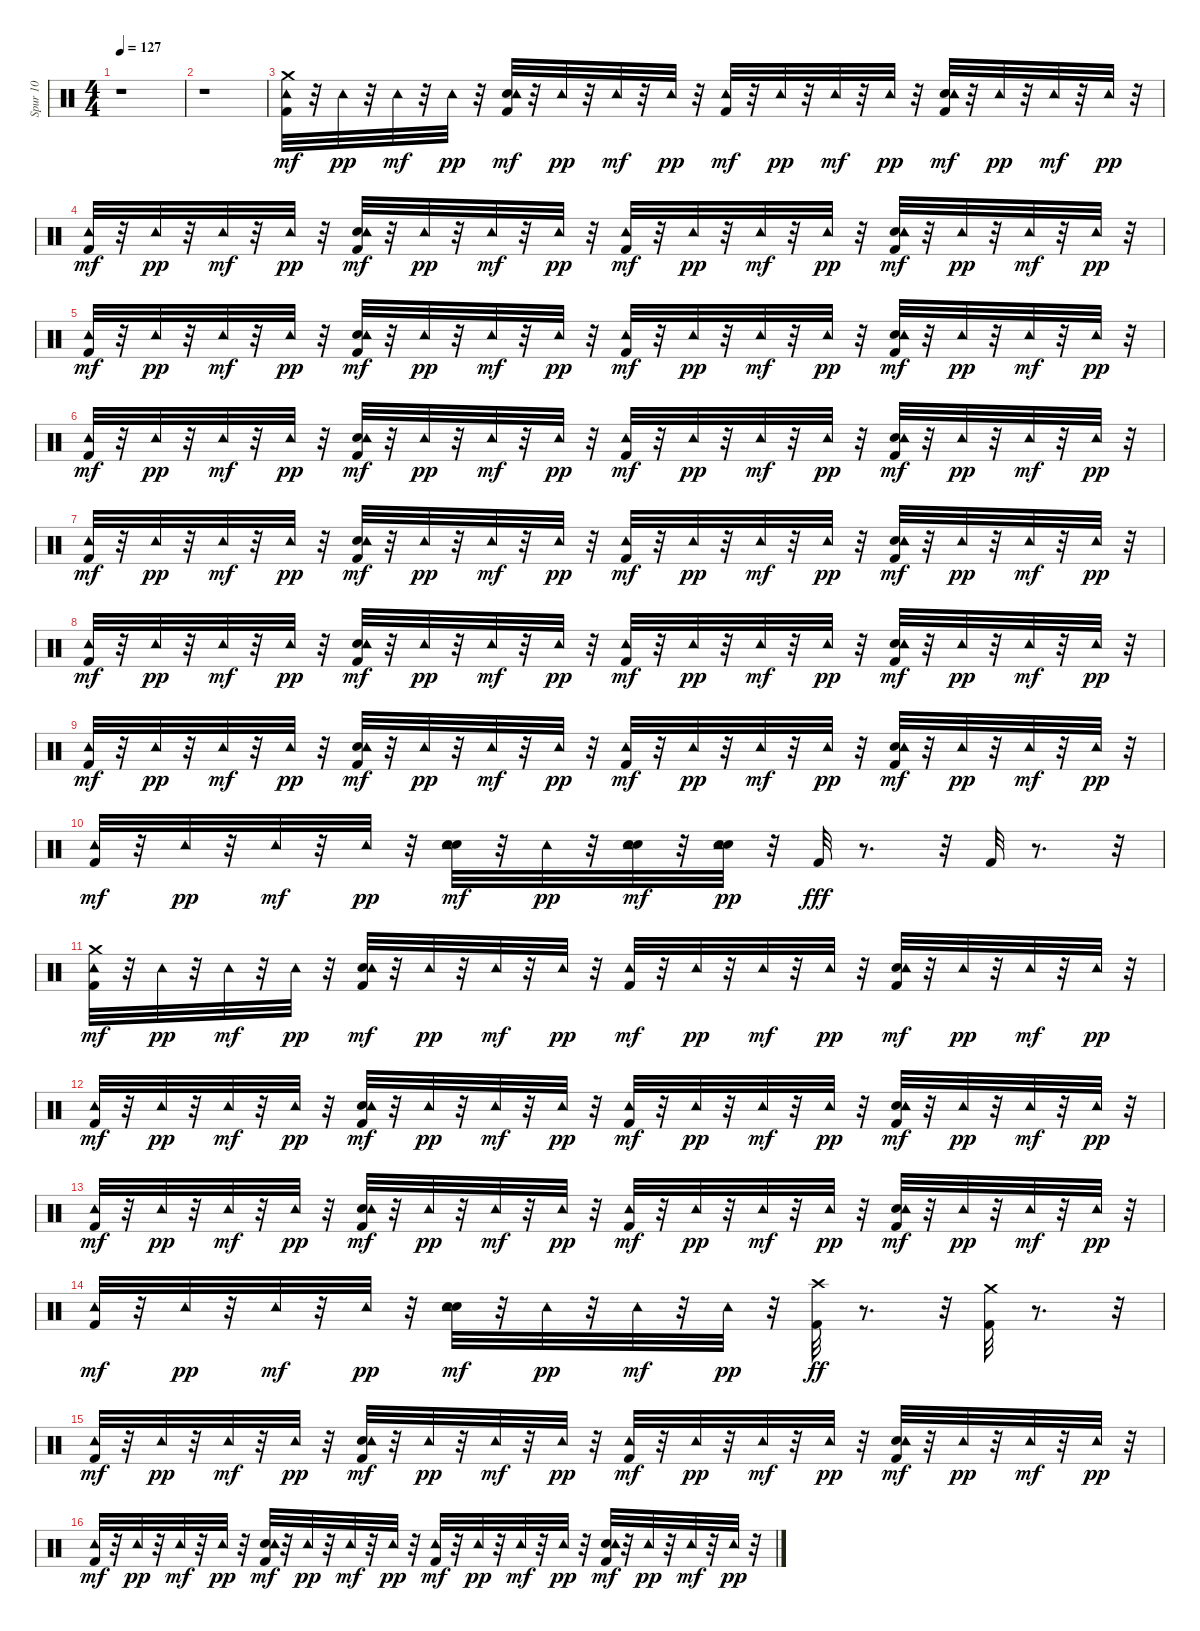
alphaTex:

\track ("Spur 10" "Spur 10") {instrument percussion}
\staff {score}
\articulation defaults
\ts (4 4)
\tempo 127
\clef neutral
\ks c
r.1{dy mf} |
r.1 |
("Kick (hit) 2" "Tambourine (hit)" "Crash medium (hit)").32 r.32 "Tambourine (hit)".32{dy pp} r.32 "Tambourine (hit)".32{dy mf} r.32 "Tambourine (hit)".32{dy pp} r.32 ("Kick (hit) 2" "Snare (hit) 2" "Tambourine (hit)").32{dy mf} r.32 "Tambourine (hit)".32{dy pp} r.32 "Tambourine (hit)".32{dy mf} r.32 "Tambourine (hit)".32{dy pp} r.32 ("Kick (hit) 2" "Tambourine (hit)").32{dy mf} r.32 "Tambourine (hit)".32{dy pp} r.32 "Tambourine (hit)".32{dy mf} r.32 "Tambourine (hit)".32{dy pp} r.32 ("Kick (hit) 2" "Snare (hit) 2" "Tambourine (hit)").32{dy mf} r.32 "Tambourine (hit)".32{dy pp} r.32 "Tambourine (hit)".32{dy mf} r.32 "Tambourine (hit)".32{dy pp} r.32 |
("Kick (hit) 2" "Tambourine (hit)").32{dy mf} r.32 "Tambourine (hit)".32{dy pp} r.32 "Tambourine (hit)".32{dy mf} r.32 "Tambourine (hit)".32{dy pp} r.32 ("Kick (hit) 2" "Snare (hit) 2" "Tambourine (hit)").32{dy mf} r.32 "Tambourine (hit)".32{dy pp} r.32 "Tambourine (hit)".32{dy mf} r.32 "Tambourine (hit)".32{dy pp} r.32 ("Kick (hit) 2" "Tambourine (hit)").32{dy mf} r.32 "Tambourine (hit)".32{dy pp} r.32 "Tambourine (hit)".32{dy mf} r.32 "Tambourine (hit)".32{dy pp} r.32 ("Kick (hit) 2" "Snare (hit) 2" "Tambourine (hit)").32{dy mf} r.32 "Tambourine (hit)".32{dy pp} r.32 "Tambourine (hit)".32{dy mf} r.32 "Tambourine (hit)".32{dy pp} r.32 |
("Kick (hit) 2" "Tambourine (hit)").32{dy mf} r.32 "Tambourine (hit)".32{dy pp} r.32 "Tambourine (hit)".32{dy mf} r.32 "Tambourine (hit)".32{dy pp} r.32 ("Kick (hit) 2" "Snare (hit) 2" "Tambourine (hit)").32{dy mf} r.32 "Tambourine (hit)".32{dy pp} r.32 "Tambourine (hit)".32{dy mf} r.32 "Tambourine (hit)".32{dy pp} r.32 ("Kick (hit) 2" "Tambourine (hit)").32{dy mf} r.32 "Tambourine (hit)".32{dy pp} r.32 "Tambourine (hit)".32{dy mf} r.32 "Tambourine (hit)".32{dy pp} r.32 ("Kick (hit) 2" "Snare (hit) 2" "Tambourine (hit)").32{dy mf} r.32 "Tambourine (hit)".32{dy pp} r.32 "Tambourine (hit)".32{dy mf} r.32 "Tambourine (hit)".32{dy pp} r.32 |
("Kick (hit) 2" "Tambourine (hit)").32{dy mf} r.32 "Tambourine (hit)".32{dy pp} r.32 "Tambourine (hit)".32{dy mf} r.32 "Tambourine (hit)".32{dy pp} r.32 ("Kick (hit) 2" "Snare (hit) 2" "Tambourine (hit)").32{dy mf} r.32 "Tambourine (hit)".32{dy pp} r.32 "Tambourine (hit)".32{dy mf} r.32 "Tambourine (hit)".32{dy pp} r.32 ("Kick (hit) 2" "Tambourine (hit)").32{dy mf} r.32 "Tambourine (hit)".32{dy pp} r.32 "Tambourine (hit)".32{dy mf} r.32 "Tambourine (hit)".32{dy pp} r.32 ("Kick (hit) 2" "Snare (hit) 2" "Tambourine (hit)").32{dy mf} r.32 "Tambourine (hit)".32{dy pp} r.32 "Tambourine (hit)".32{dy mf} r.32 "Tambourine (hit)".32{dy pp} r.32 |
("Kick (hit) 2" "Tambourine (hit)").32{dy mf} r.32 "Tambourine (hit)".32{dy pp} r.32 "Tambourine (hit)".32{dy mf} r.32 "Tambourine (hit)".32{dy pp} r.32 ("Kick (hit) 2" "Snare (hit) 2" "Tambourine (hit)").32{dy mf} r.32 "Tambourine (hit)".32{dy pp} r.32 "Tambourine (hit)".32{dy mf} r.32 "Tambourine (hit)".32{dy pp} r.32 ("Kick (hit) 2" "Tambourine (hit)").32{dy mf} r.32 "Tambourine (hit)".32{dy pp} r.32 "Tambourine (hit)".32{dy mf} r.32 "Tambourine (hit)".32{dy pp} r.32 ("Kick (hit) 2" "Snare (hit) 2" "Tambourine (hit)").32{dy mf} r.32 "Tambourine (hit)".32{dy pp} r.32 "Tambourine (hit)".32{dy mf} r.32 "Tambourine (hit)".32{dy pp} r.32 |
("Kick (hit) 2" "Tambourine (hit)").32{dy mf} r.32 "Tambourine (hit)".32{dy pp} r.32 "Tambourine (hit)".32{dy mf} r.32 "Tambourine (hit)".32{dy pp} r.32 ("Kick (hit) 2" "Snare (hit) 2" "Tambourine (hit)").32{dy mf} r.32 "Tambourine (hit)".32{dy pp} r.32 "Tambourine (hit)".32{dy mf} r.32 "Tambourine (hit)".32{dy pp} r.32 ("Kick (hit) 2" "Tambourine (hit)").32{dy mf} r.32 "Tambourine (hit)".32{dy pp} r.32 "Tambourine (hit)".32{dy mf} r.32 "Tambourine (hit)".32{dy pp} r.32 ("Kick (hit) 2" "Snare (hit) 2" "Tambourine (hit)").32{dy mf} r.32 "Tambourine (hit)".32{dy pp} r.32 "Tambourine (hit)".32{dy mf} r.32 "Tambourine (hit)".32{dy pp} r.32 |
("Kick (hit) 2" "Tambourine (hit)").32{dy mf} r.32 "Tambourine (hit)".32{dy pp} r.32 "Tambourine (hit)".32{dy mf} r.32 "Tambourine (hit)".32{dy pp} r.32 ("Kick (hit) 2" "Snare (hit) 2" "Tambourine (hit)").32{dy mf} r.32 "Tambourine (hit)".32{dy pp} r.32 "Tambourine (hit)".32{dy mf} r.32 "Tambourine (hit)".32{dy pp} r.32 ("Kick (hit) 2" "Tambourine (hit)").32{dy mf} r.32 "Tambourine (hit)".32{dy pp} r.32 "Tambourine (hit)".32{dy mf} r.32 "Tambourine (hit)".32{dy pp} r.32 ("Kick (hit) 2" "Snare (hit) 2" "Tambourine (hit)").32{dy mf} r.32 "Tambourine (hit)".32{dy pp} r.32 "Tambourine (hit)".32{dy mf} r.32 "Tambourine (hit)".32{dy pp} r.32 |
("Kick (hit) 2" "Tambourine (hit)").32{dy mf} r.32 "Tambourine (hit)".32{dy pp} r.32 "Tambourine (hit)".32{dy mf} r.32 "Tambourine (hit)".32{dy pp} r.32 ("Snare (hit) 2" "Electric Snare (hit)" "Tambourine (hit)").32{dy mf} r.32 "Tambourine (hit)".32{dy pp} r.32 ("Snare (hit) 2" "Electric Snare (hit)" "Tambourine (hit)").32{dy mf} r.32 ("Snare (hit) 2" "Electric Snare (hit)" "Tambourine (hit)").32{dy pp} r.32 "Kick (hit) 2".32{dy fff} r.8{d} r.32 "Kick (hit) 2".32 r.8{d} r.32 |
("Kick (hit) 2" "Tambourine (hit)" "Crash medium (hit)").32{dy mf} r.32 "Tambourine (hit)".32{dy pp} r.32 "Tambourine (hit)".32{dy mf} r.32 "Tambourine (hit)".32{dy pp} r.32 ("Kick (hit) 2" "Snare (hit) 2" "Tambourine (hit)").32{dy mf} r.32 "Tambourine (hit)".32{dy pp} r.32 "Tambourine (hit)".32{dy mf} r.32 "Tambourine (hit)".32{dy pp} r.32 ("Kick (hit) 2" "Tambourine (hit)").32{dy mf} r.32 "Tambourine (hit)".32{dy pp} r.32 "Tambourine (hit)".32{dy mf} r.32 "Tambourine (hit)".32{dy pp} r.32 ("Kick (hit) 2" "Snare (hit) 2" "Tambourine (hit)").32{dy mf} r.32 "Tambourine (hit)".32{dy pp} r.32 "Tambourine (hit)".32{dy mf} r.32 "Tambourine (hit)".32{dy pp} r.32 |
("Kick (hit) 2" "Tambourine (hit)").32{dy mf} r.32 "Tambourine (hit)".32{dy pp} r.32 "Tambourine (hit)".32{dy mf} r.32 "Tambourine (hit)".32{dy pp} r.32 ("Kick (hit) 2" "Snare (hit) 2" "Tambourine (hit)").32{dy mf} r.32 "Tambourine (hit)".32{dy pp} r.32 "Tambourine (hit)".32{dy mf} r.32 "Tambourine (hit)".32{dy pp} r.32 ("Kick (hit) 2" "Tambourine (hit)").32{dy mf} r.32 "Tambourine (hit)".32{dy pp} r.32 "Tambourine (hit)".32{dy mf} r.32 "Tambourine (hit)".32{dy pp} r.32 ("Kick (hit) 2" "Snare (hit) 2" "Tambourine (hit)").32{dy mf} r.32 "Tambourine (hit)".32{dy pp} r.32 "Tambourine (hit)".32{dy mf} r.32 "Tambourine (hit)".32{dy pp} r.32 |
("Kick (hit) 2" "Tambourine (hit)").32{dy mf} r.32 "Tambourine (hit)".32{dy pp} r.32 "Tambourine (hit)".32{dy mf} r.32 "Tambourine (hit)".32{dy pp} r.32 ("Kick (hit) 2" "Snare (hit) 2" "Tambourine (hit)").32{dy mf} r.32 "Tambourine (hit)".32{dy pp} r.32 "Tambourine (hit)".32{dy mf} r.32 "Tambourine (hit)".32{dy pp} r.32 ("Kick (hit) 2" "Tambourine (hit)").32{dy mf} r.32 "Tambourine (hit)".32{dy pp} r.32 "Tambourine (hit)".32{dy mf} r.32 "Tambourine (hit)".32{dy pp} r.32 ("Kick (hit) 2" "Snare (hit) 2" "Tambourine (hit)").32{dy mf} r.32 "Tambourine (hit)".32{dy pp} r.32 "Tambourine (hit)".32{dy mf} r.32 "Tambourine (hit)".32{dy pp} r.32 |
("Kick (hit) 2" "Tambourine (hit)").32{dy mf} r.32 "Tambourine (hit)".32{dy pp} r.32 "Tambourine (hit)".32{dy mf} r.32 "Tambourine (hit)".32{dy pp} r.32 ("Snare (hit) 2" "Electric Snare (hit)" "Tambourine (hit)").32{dy mf} r.32 "Tambourine (hit)".32{dy pp} r.32 "Tambourine (hit)".32{dy mf} r.32 "Tambourine (hit)".32{dy pp} r.32 ("Kick (hit) 2" "Crash high (hit)").32{dy ff} r.8{d} r.32 ("Kick (hit) 2" "Crash medium (hit)").32 r.8{d} r.32 |
("Kick (hit) 2" "Tambourine (hit)").32{dy mf} r.32 "Tambourine (hit)".32{dy pp} r.32 "Tambourine (hit)".32{dy mf} r.32 "Tambourine (hit)".32{dy pp} r.32 ("Kick (hit) 2" "Snare (hit) 2" "Tambourine (hit)").32{dy mf} r.32 "Tambourine (hit)".32{dy pp} r.32 "Tambourine (hit)".32{dy mf} r.32 "Tambourine (hit)".32{dy pp} r.32 ("Kick (hit) 2" "Tambourine (hit)").32{dy mf} r.32 "Tambourine (hit)".32{dy pp} r.32 "Tambourine (hit)".32{dy mf} r.32 "Tambourine (hit)".32{dy pp} r.32 ("Kick (hit) 2" "Snare (hit) 2" "Tambourine (hit)").32{dy mf} r.32 "Tambourine (hit)".32{dy pp} r.32 "Tambourine (hit)".32{dy mf} r.32 "Tambourine (hit)".32{dy pp} r.32 |
("Kick (hit) 2" "Tambourine (hit)").32{dy mf} r.32 "Tambourine (hit)".32{dy pp} r.32 "Tambourine (hit)".32{dy mf} r.32 "Tambourine (hit)".32{dy pp} r.32 ("Kick (hit) 2" "Snare (hit) 2" "Tambourine (hit)").32{dy mf} r.32 "Tambourine (hit)".32{dy pp} r.32 "Tambourine (hit)".32{dy mf} r.32 "Tambourine (hit)".32{dy pp} r.32 ("Kick (hit) 2" "Tambourine (hit)").32{dy mf} r.32 "Tambourine (hit)".32{dy pp} r.32 "Tambourine (hit)".32{dy mf} r.32 "Tambourine (hit)".32{dy pp} r.32 ("Kick (hit) 2" "Snare (hit) 2" "Tambourine (hit)").32{dy mf} r.32 "Tambourine (hit)".32{dy pp} r.32 "Tambourine (hit)".32{dy mf} r.32 "Tambourine (hit)".32{dy pp} r.32
